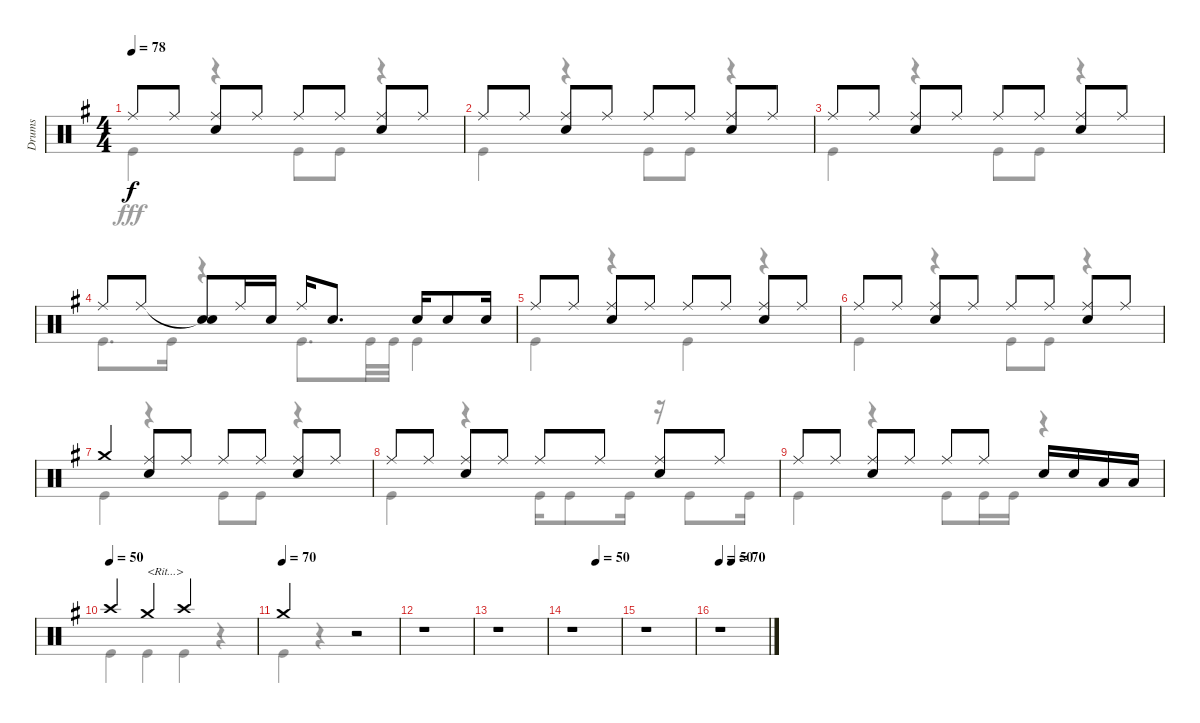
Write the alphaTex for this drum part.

\track ("Drums" "Drums") {instrument percussion}
\staff {score}
\articulation defaults
\voice
\ts (4 4)
\tempo 78
\clef neutral
\ks g "Ride (middle)".8{dy f} "Ride (middle)".8
("Ride (middle)" "Snare (hit) 2").8 "Ride (middle)".8 "Ride (middle)".8 "Ride (middle)".8 ("Ride (middle)" "Snare (hit) 2").8 "Ride (middle)".8 |
"Ride (middle)".8 "Ride (middle)".8 ("Ride (middle)" "Snare (hit) 2").8 "Ride (middle)".8 "Ride (middle)".8 "Ride (middle)".8 ("Ride (middle)" "Snare (hit) 2").8 "Ride (middle)".8 |
"Ride (middle)".8 "Ride (middle)".8 ("Ride (middle)" "Snare (hit) 2").8 "Ride (middle)".8 "Ride (middle)".8 "Ride (middle)".8 ("Ride (middle)" "Snare (hit) 2").8 "Ride (middle)".8 |
"Ride (middle)".8 "Ride (middle)".8 ("Snare (hit)"{t} "Snare (hit) 2").8 "Ride (middle)".16 "Snare (hit) 2".16 "Ride (middle)".16 "Snare (hit) 2".8{d} "Snare (hit) 2".16 "Snare (hit) 2".8 "Snare (hit) 2".16 |
"Ride (middle)".8 "Ride (middle)".8 ("Ride (middle)" "Snare (hit) 2").8 "Ride (middle)".8 "Ride (middle)".8 "Ride (middle)".8 ("Ride (middle)" "Snare (hit) 2").8 "Ride (middle)".8 |
"Ride (middle)".8 "Ride (middle)".8 ("Ride (middle)" "Snare (hit) 2").8 "Ride (middle)".8 "Ride (middle)".8 "Ride (middle)".8 ("Ride (middle)" "Snare (hit) 2").8 "Ride (middle)".8 |
"Crash medium (hit)".4 ("Ride (middle)" "Snare (hit) 2").8 "Ride (middle)".8 "Ride (middle)".8 "Ride (middle)".8 ("Ride (middle)" "Snare (hit) 2").8 "Ride (middle)".8 |
"Ride (middle)".8 "Ride (middle)".8 ("Ride (middle)" "Snare (hit) 2").8 "Ride (middle)".8 "Ride (middle)".8 "Ride (middle)".8 ("Ride (middle)" "Snare (hit) 2").8 "Ride (middle)".8 |
"Ride (middle)".8 "Ride (middle)".8 ("Ride (middle)" "Snare (hit) 2").8 "Ride (middle)".8 "Ride (middle)".8 "Ride (middle)".8 "Snare (hit) 2".16 "Snare (hit) 2".16 "Low Tom (hit)".16 "Low Tom (hit)".16 |
\tempo (50)
"Crash high (hit)".4 "Crash medium (hit)".4{txt "<Rit...>"} "Crash high (hit)".2 |
\tempo (70)
"Crash medium (hit)".2 r.2 |
r.1 |
r.1 |
\tempo (50 0.5)
r.1 |
r.1 |
\tempo 50
\tempo (70 0.25)
r.1
\voice
\clef neutral
\ottava regular
\simile none
\ks g "Kick (hit)".4{dy fff}
r.4 "Kick (hit)".8 "Kick (hit)".8 r.4 |
"Kick (hit)".4 r.4 "Kick (hit)".8 "Kick (hit)".8 r.4 |
"Kick (hit)".4 r.4 "Kick (hit)".8 "Kick (hit)".8 r.4 |
"Kick (hit)".8{d} "Kick (hit)".16 r.4 "Kick (hit)".8{d} "Kick (hit)".32 "Kick (hit)".32 "Kick (hit)".4 |
"Kick (hit)".4 r.4 "Kick (hit)".4 r.4 |
"Kick (hit)".4 r.4 "Kick (hit)".8 "Kick (hit)".8 r.4 |
"Kick (hit)".4 r.4 "Kick (hit)".8 "Kick (hit)".8 r.4 |
"Kick (hit)".4 r.4 "Kick (hit)".16 "Kick (hit)".8 "Kick (hit)".16 r.16 "Kick (hit)".8 "Kick (hit)".16 |
"Kick (hit)".4 r.4 "Kick (hit)".8 "Kick (hit)".16 "Kick (hit)".16 r.4 |
"Kick (hit)".4 "Kick (hit)".4 "Kick (hit)".4 r.4 |
"Kick (hit)".4 r.4 r.2 |
r.1 |
r.1 |
r.1 |
r.1 |
r.1
